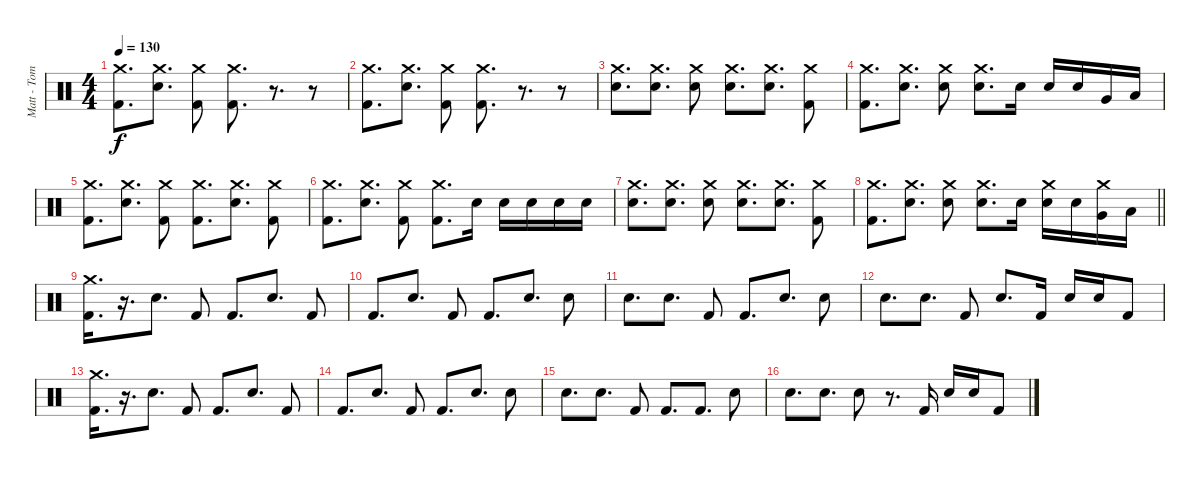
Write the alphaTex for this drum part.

\track ("Matt - Tom" "Matt - Tom") {instrument percussion}
\staff {score}
\articulation defaults
\ts (4 4)
\tempo 130
\clef neutral
\ks c
("Crash medium (hit)" "Kick (hit) 2").8{d dy f} ("Crash medium (hit)" "Electric Snare (hit)").8{d} ("Crash medium (hit)" "Kick (hit) 2").8 ("Crash medium (hit)" "Kick (hit) 2").8{d} r.8{d} r.8 |
("Crash medium (hit)" "Kick (hit) 2").8{d} ("Crash medium (hit)" "Electric Snare (hit)").8{d} ("Crash medium (hit)" "Kick (hit) 2").8 ("Crash medium (hit)" "Kick (hit) 2").8{d} r.8{d} r.8 |
("Crash medium (hit)" "Electric Snare (hit)").8{d} ("Crash medium (hit)" "Electric Snare (hit)").8{d} ("Crash medium (hit)" "Electric Snare (hit)").8 ("Crash medium (hit)" "Electric Snare (hit)").8{d} ("Crash medium (hit)" "Electric Snare (hit)").8{d} ("Crash medium (hit)" "Kick (hit) 2").8 |
("Crash medium (hit)" "Kick (hit) 2").8{d} ("Crash medium (hit)" "Electric Snare (hit)").8{d} ("Crash medium (hit)" "Electric Snare (hit)").8 ("Crash medium (hit)" "Electric Snare (hit)").8{d} "Electric Snare (hit)".16 "Electric Snare (hit)".16 "Electric Snare (hit)".16 "Very Low Tom (hit)".16 "Low Floor Tom (hit)".16 |
("Crash medium (hit)" "Kick (hit) 2").8{d} ("Crash medium (hit)" "Electric Snare (hit)").8{d} ("Crash medium (hit)" "Kick (hit) 2").8 ("Crash medium (hit)" "Kick (hit) 2").8{d} ("Crash medium (hit)" "Electric Snare (hit)").8{d} ("Crash medium (hit)" "Kick (hit) 2").8 |
("Crash medium (hit)" "Kick (hit) 2").8{d} ("Crash medium (hit)" "Electric Snare (hit)").8{d} ("Crash medium (hit)" "Kick (hit) 2").8 ("Crash medium (hit)" "Kick (hit) 2").8{d} "Electric Snare (hit)".16 "Electric Snare (hit)".16 "Electric Snare (hit)".16 "Electric Snare (hit)".16 "Electric Snare (hit)".16 |
("Crash medium (hit)" "Electric Snare (hit)").8{d} ("Crash medium (hit)" "Electric Snare (hit)").8{d} ("Crash medium (hit)" "Electric Snare (hit)").8 ("Crash medium (hit)" "Electric Snare (hit)").8{d} ("Crash medium (hit)" "Electric Snare (hit)").8{d} ("Crash medium (hit)" "Kick (hit) 2").8 |
\barLineRight lightlight
("Crash medium (hit)" "Kick (hit) 2").8{d} ("Crash medium (hit)" "Electric Snare (hit)").8{d} ("Crash medium (hit)" "Electric Snare (hit)").8 ("Crash medium (hit)" "Electric Snare (hit)").8{d} "Electric Snare (hit)".16 ("Crash medium (hit)" "Electric Snare (hit)").16 "Electric Snare (hit)".16 ("Crash medium (hit)" "Very Low Tom (hit)").16 "Low Floor Tom (hit)".16 |
("Crash medium (hit)" "Kick (hit) 2").16{d} r.16{d} "Electric Snare (hit)".8{d} "Kick (hit) 2".8 "Kick (hit) 2".8{d} "Electric Snare (hit)".8{d} "Kick (hit) 2".8 |
"Kick (hit) 2".8{d} "Electric Snare (hit)".8{d} "Kick (hit) 2".8 "Kick (hit) 2".8{d} "Electric Snare (hit)".8{d} "Electric Snare (hit)".8 |
"Electric Snare (hit)".8{d} "Electric Snare (hit)".8{d} "Kick (hit) 2".8 "Kick (hit) 2".8{d} "Electric Snare (hit)".8{d} "Electric Snare (hit)".8 |
"Electric Snare (hit)".8{d} "Electric Snare (hit)".8{d} "Kick (hit) 2".8 "Electric Snare (hit)".8{d} "Kick (hit) 2".16 "Electric Snare (hit)".16 "Electric Snare (hit)".16 "Kick (hit) 2".8 |
("Crash medium (hit)" "Kick (hit) 2").16{d} r.16{d} "Electric Snare (hit)".8{d} "Kick (hit) 2".8 "Kick (hit) 2".8{d} "Electric Snare (hit)".8{d} "Kick (hit) 2".8 |
"Kick (hit) 2".8{d} "Electric Snare (hit)".8{d} "Kick (hit) 2".8 "Kick (hit) 2".8{d} "Electric Snare (hit)".8{d} "Electric Snare (hit)".8 |
"Electric Snare (hit)".8{d} "Electric Snare (hit)".8{d} "Kick (hit) 2".8 "Kick (hit) 2".8{d} "Kick (hit) 2".8{d} "Electric Snare (hit)".8 |
"Electric Snare (hit)".8{d} "Electric Snare (hit)".8{d} "Electric Snare (hit)".8 r.8{d} "Kick (hit) 2".16 "Electric Snare (hit)".16 "Electric Snare (hit)".16 "Kick (hit) 2".8
